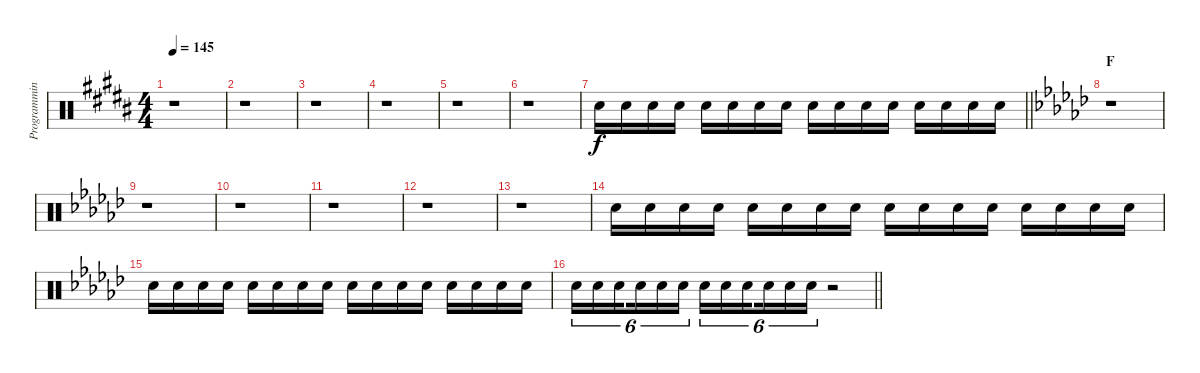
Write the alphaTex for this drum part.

\track ("Programming Drums II" "Programmin") {instrument percussion}
\staff {score}
\articulation defaults
\ts (4 4)
\tempo 145
\clef neutral
\ks b
r.1{dy f} |
r.1 |
r.1 |
r.1 |
r.1 |
r.1 |
\barLineRight lightlight "Electric Snare (hit)".16 "Electric Snare (hit)".16 "Electric Snare (hit)".16 "Electric Snare (hit)".16 "Electric Snare (hit)".16 "Electric Snare (hit)".16 "Electric Snare (hit)".16 "Electric Snare (hit)".16 "Electric Snare (hit)".16 "Electric Snare (hit)".16 "Electric Snare (hit)".16 "Electric Snare (hit)".16 "Electric Snare (hit)".16 "Electric Snare (hit)".16 "Electric Snare (hit)".16 "Electric Snare (hit)".16
|
\section ("" "F")
\ks gb
r.1 |
r.1 |
r.1 |
r.1 |
r.1 |
r.1 |
"Electric Snare (hit)".16 "Electric Snare (hit)".16 "Electric Snare (hit)".16 "Electric Snare (hit)".16 "Electric Snare (hit)".16 "Electric Snare (hit)".16 "Electric Snare (hit)".16 "Electric Snare (hit)".16 "Electric Snare (hit)".16 "Electric Snare (hit)".16 "Electric Snare (hit)".16 "Electric Snare (hit)".16 "Electric Snare (hit)".16 "Electric Snare (hit)".16 "Electric Snare (hit)".16 "Electric Snare (hit)".16 |
"Electric Snare (hit)".16 "Electric Snare (hit)".16 "Electric Snare (hit)".16 "Electric Snare (hit)".16 "Electric Snare (hit)".16 "Electric Snare (hit)".16 "Electric Snare (hit)".16 "Electric Snare (hit)".16 "Electric Snare (hit)".16 "Electric Snare (hit)".16 "Electric Snare (hit)".16 "Electric Snare (hit)".16 "Electric Snare (hit)".16 "Electric Snare (hit)".16 "Electric Snare (hit)".16 "Electric Snare (hit)".16 |
\barLineRight lightlight "Electric Snare (hit)".16{tu (6 4)} "Electric Snare (hit)".16{tu (6 4)} "Electric Snare (hit)".16{tu (6 4) beam splitsecondary} "Electric Snare (hit)".16{tu (6 4)} "Electric Snare (hit)".16{tu (6 4)} "Electric Snare (hit)".16{tu (6 4)} "Electric Snare (hit)".16{tu (6 4)} "Electric Snare (hit)".16{tu (6 4)} "Electric Snare (hit)".16{tu (6 4) beam splitsecondary} "Electric Snare (hit)".16{tu (6 4)} "Electric Snare (hit)".16{tu (6 4)} "Electric Snare (hit)".16{tu (6 4)}
r.2
